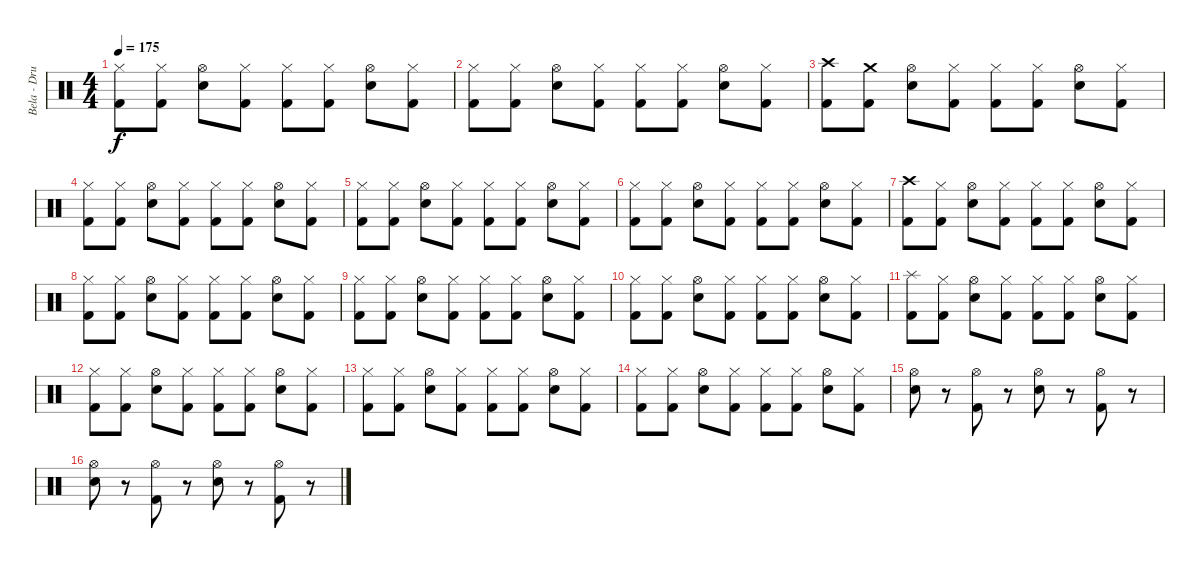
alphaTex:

\track ("Bela - Drums" "Bela - Dru") {instrument percussion}
\staff {score}
\articulation defaults
\ts (4 4)
\tempo 175
\clef neutral
\ks c
("Hi-Hat (closed)" "Kick (hit) 2").8{dy f} ("Hi-Hat (closed)" "Kick (hit) 2").8 ("Hi-Hat (open)" "Electric Snare (hit)").8 ("Hi-Hat (closed)" "Kick (hit) 2").8 ("Hi-Hat (closed)" "Kick (hit) 2").8 ("Hi-Hat (closed)" "Kick (hit) 2").8 ("Hi-Hat (open)" "Electric Snare (hit)").8 ("Hi-Hat (closed)" "Kick (hit) 2").8 |
("Hi-Hat (closed)" "Kick (hit) 2").8 ("Hi-Hat (closed)" "Kick (hit) 2").8 ("Hi-Hat (open)" "Electric Snare (hit)").8 ("Hi-Hat (closed)" "Kick (hit) 2").8 ("Hi-Hat (closed)" "Kick (hit) 2").8 ("Hi-Hat (closed)" "Kick (hit) 2").8 ("Hi-Hat (open)" "Electric Snare (hit)").8 ("Hi-Hat (closed)" "Kick (hit) 2").8 |
("Crash high (hit)" "Kick (hit) 2").8 ("Crash medium (hit)" "Kick (hit) 2").8 ("Hi-Hat (open)" "Electric Snare (hit)").8 ("Hi-Hat (closed)" "Kick (hit) 2").8 ("Hi-Hat (closed)" "Kick (hit) 2").8 ("Hi-Hat (closed)" "Kick (hit) 2").8 ("Hi-Hat (open)" "Electric Snare (hit)").8 ("Hi-Hat (closed)" "Kick (hit) 2").8 |
("Hi-Hat (closed)" "Kick (hit) 2").8 ("Hi-Hat (closed)" "Kick (hit) 2").8 ("Hi-Hat (open)" "Electric Snare (hit)").8 ("Hi-Hat (closed)" "Kick (hit) 2").8 ("Hi-Hat (closed)" "Kick (hit) 2").8 ("Hi-Hat (closed)" "Kick (hit) 2").8 ("Hi-Hat (open)" "Electric Snare (hit)").8 ("Hi-Hat (closed)" "Kick (hit) 2").8 |
("Hi-Hat (closed)" "Kick (hit) 2").8 ("Hi-Hat (closed)" "Kick (hit) 2").8 ("Hi-Hat (open)" "Electric Snare (hit)").8 ("Hi-Hat (closed)" "Kick (hit) 2").8 ("Hi-Hat (closed)" "Kick (hit) 2").8 ("Hi-Hat (closed)" "Kick (hit) 2").8 ("Hi-Hat (open)" "Electric Snare (hit)").8 ("Hi-Hat (closed)" "Kick (hit) 2").8 |
("Hi-Hat (closed)" "Kick (hit) 2").8 ("Hi-Hat (closed)" "Kick (hit) 2").8 ("Hi-Hat (open)" "Electric Snare (hit)").8 ("Hi-Hat (closed)" "Kick (hit) 2").8 ("Hi-Hat (closed)" "Kick (hit) 2").8 ("Hi-Hat (closed)" "Kick (hit) 2").8 ("Hi-Hat (open)" "Electric Snare (hit)").8 ("Hi-Hat (closed)" "Kick (hit) 2").8 |
("Crash high (hit)" "Kick (hit) 2").8 ("Hi-Hat (closed)" "Kick (hit) 2").8 ("Hi-Hat (open)" "Electric Snare (hit)").8 ("Hi-Hat (closed)" "Kick (hit) 2").8 ("Hi-Hat (closed)" "Kick (hit) 2").8 ("Hi-Hat (closed)" "Kick (hit) 2").8 ("Hi-Hat (open)" "Electric Snare (hit)").8 ("Hi-Hat (closed)" "Kick (hit) 2").8 |
("Hi-Hat (closed)" "Kick (hit) 2").8 ("Hi-Hat (closed)" "Kick (hit) 2").8 ("Hi-Hat (open)" "Electric Snare (hit)").8 ("Hi-Hat (closed)" "Kick (hit) 2").8 ("Hi-Hat (closed)" "Kick (hit) 2").8 ("Hi-Hat (closed)" "Kick (hit) 2").8 ("Hi-Hat (open)" "Electric Snare (hit)").8 ("Hi-Hat (closed)" "Kick (hit) 2").8 |
("Hi-Hat (closed)" "Kick (hit) 2").8 ("Hi-Hat (closed)" "Kick (hit) 2").8 ("Hi-Hat (open)" "Electric Snare (hit)").8 ("Hi-Hat (closed)" "Kick (hit) 2").8 ("Hi-Hat (closed)" "Kick (hit) 2").8 ("Hi-Hat (closed)" "Kick (hit) 2").8 ("Hi-Hat (open)" "Electric Snare (hit)").8 ("Hi-Hat (closed)" "Kick (hit) 2").8 |
("Hi-Hat (closed)" "Kick (hit) 2").8 ("Hi-Hat (closed)" "Kick (hit) 2").8 ("Hi-Hat (open)" "Electric Snare (hit)").8 ("Hi-Hat (closed)" "Kick (hit) 2").8 ("Hi-Hat (closed)" "Kick (hit) 2").8 ("Hi-Hat (closed)" "Kick (hit) 2").8 ("Hi-Hat (open)" "Electric Snare (hit)").8 ("Hi-Hat (closed)" "Kick (hit) 2").8 |
("Splash (hit)" "Kick (hit) 2").8 ("Hi-Hat (closed)" "Kick (hit) 2").8 ("Hi-Hat (open)" "Electric Snare (hit)").8 ("Hi-Hat (closed)" "Kick (hit) 2").8 ("Hi-Hat (closed)" "Kick (hit) 2").8 ("Hi-Hat (closed)" "Kick (hit) 2").8 ("Hi-Hat (open)" "Electric Snare (hit)").8 ("Hi-Hat (closed)" "Kick (hit) 2").8 |
("Hi-Hat (closed)" "Kick (hit) 2").8 ("Hi-Hat (closed)" "Kick (hit) 2").8 ("Hi-Hat (open)" "Electric Snare (hit)").8 ("Hi-Hat (closed)" "Kick (hit) 2").8 ("Hi-Hat (closed)" "Kick (hit) 2").8 ("Hi-Hat (closed)" "Kick (hit) 2").8 ("Hi-Hat (open)" "Electric Snare (hit)").8 ("Hi-Hat (closed)" "Kick (hit) 2").8 |
("Hi-Hat (closed)" "Kick (hit) 2").8 ("Hi-Hat (closed)" "Kick (hit) 2").8 ("Hi-Hat (open)" "Electric Snare (hit)").8 ("Hi-Hat (closed)" "Kick (hit) 2").8 ("Hi-Hat (closed)" "Kick (hit) 2").8 ("Hi-Hat (closed)" "Kick (hit) 2").8 ("Hi-Hat (open)" "Electric Snare (hit)").8 ("Hi-Hat (closed)" "Kick (hit) 2").8 |
("Hi-Hat (closed)" "Kick (hit) 2").8 ("Hi-Hat (closed)" "Kick (hit) 2").8 ("Hi-Hat (open)" "Electric Snare (hit)").8 ("Hi-Hat (closed)" "Kick (hit) 2").8 ("Hi-Hat (closed)" "Kick (hit) 2").8 ("Hi-Hat (closed)" "Kick (hit) 2").8 ("Hi-Hat (open)" "Electric Snare (hit)").8 ("Hi-Hat (closed)" "Kick (hit) 2").8 |
("Hi-Hat (open)" "Electric Snare (hit)").8 r.8 ("Hi-Hat (open)" "Kick (hit) 2").8 r.8 ("Hi-Hat (open)" "Electric Snare (hit)").8 r.8 ("Hi-Hat (open)" "Kick (hit) 2").8 r.8 |
("Hi-Hat (open)" "Electric Snare (hit)").8 r.8 ("Hi-Hat (open)" "Kick (hit) 2").8 r.8 ("Hi-Hat (open)" "Electric Snare (hit)").8 r.8 ("Hi-Hat (open)" "Kick (hit) 2").8 r.8
